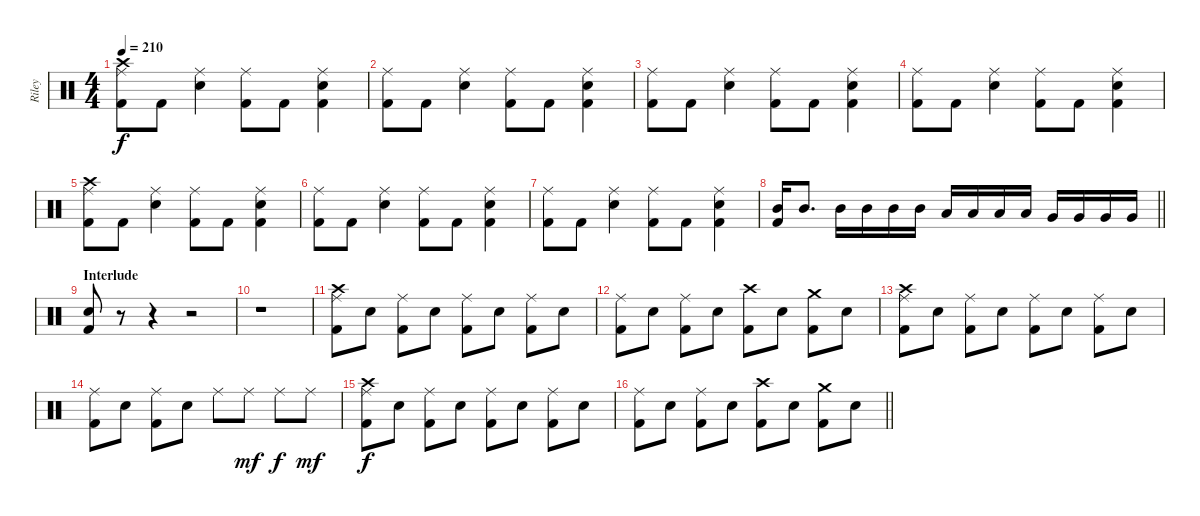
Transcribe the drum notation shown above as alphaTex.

\track ("Riley" "Riley") {instrument percussion}
\staff {score}
\articulation defaults
\ts (4 4)
\tempo 210
\clef neutral
\ks c
("Crash high (hit)" "Ride (middle)" "Kick (hit) 2").8{dy f} "Kick (hit) 2".8 ("Ride (middle)" "Electric Snare (hit)").4 ("Ride (middle)" "Kick (hit) 2").8 "Kick (hit) 2".8 ("Ride (middle)" "Electric Snare (hit)" "Kick (hit) 2").4 |
("Ride (middle)" "Kick (hit) 2").8 "Kick (hit) 2".8 ("Ride (middle)" "Electric Snare (hit)").4 ("Ride (middle)" "Kick (hit) 2").8 "Kick (hit) 2".8 ("Ride (middle)" "Electric Snare (hit)" "Kick (hit) 2").4 |
("Ride (middle)" "Kick (hit) 2").8 "Kick (hit) 2".8 ("Ride (middle)" "Electric Snare (hit)").4 ("Ride (middle)" "Kick (hit) 2").8 "Kick (hit) 2".8 ("Ride (middle)" "Electric Snare (hit)" "Kick (hit) 2").4 |
("Ride (middle)" "Kick (hit) 2").8 "Kick (hit) 2".8 ("Ride (middle)" "Electric Snare (hit)").4 ("Ride (middle)" "Kick (hit) 2").8 "Kick (hit) 2".8 ("Ride (middle)" "Electric Snare (hit)" "Kick (hit) 2").4 |
("Crash high (hit)" "Ride (middle)" "Kick (hit) 2").8 "Kick (hit) 2".8 ("Ride (middle)" "Electric Snare (hit)").4 ("Ride (middle)" "Kick (hit) 2").8 "Kick (hit) 2".8 ("Ride (middle)" "Electric Snare (hit)" "Kick (hit) 2").4 |
("Ride (middle)" "Kick (hit) 2").8 "Kick (hit) 2".8 ("Ride (middle)" "Electric Snare (hit)").4 ("Ride (middle)" "Kick (hit) 2").8 "Kick (hit) 2".8 ("Ride (middle)" "Electric Snare (hit)" "Kick (hit) 2").4 |
("Ride (middle)" "Kick (hit) 2").8 "Kick (hit) 2".8 ("Ride (middle)" "Electric Snare (hit)").4 ("Ride (middle)" "Kick (hit) 2").8 "Kick (hit) 2".8 ("Ride (middle)" "Electric Snare (hit)" "Kick (hit) 2").4 |
\barLineRight lightlight
("Mid Tom (hit)" "Kick (hit) 2").16 "Mid Tom (hit)".8{d} "Mid Tom (hit)".16 "Mid Tom (hit)".16 "Mid Tom (hit)".16 "Mid Tom (hit)".16 "Low Tom (hit)".16 "Low Tom (hit)".16 "Low Tom (hit)".16 "Low Tom (hit)".16 "Very Low Tom (hit)".16 "Very Low Tom (hit)".16 "Very Low Tom (hit)".16 "Very Low Tom (hit)".16 |
\section ("" "Interlude")
("Electric Snare (hit)" "Kick (hit) 2").8 r.8 r.4 r.2 |
r.1 |
("Crash high (hit)" "Ride (middle)" "Kick (hit) 2").8 "Electric Snare (hit)".8 ("Ride (middle)" "Kick (hit) 2").8 "Electric Snare (hit)".8 ("Ride (middle)" "Kick (hit) 2").8 "Electric Snare (hit)".8 ("Ride (middle)" "Kick (hit) 2").8 "Electric Snare (hit)".8 |
("Ride (middle)" "Kick (hit) 2").8 "Electric Snare (hit)".8 ("Ride (middle)" "Kick (hit) 2").8 "Electric Snare (hit)".8 ("Crash high (hit)" "Kick (hit) 2").8 "Electric Snare (hit)".8 ("Crash medium (hit)" "Kick (hit) 2").8 "Electric Snare (hit)".8 |
("Crash high (hit)" "Ride (middle)" "Kick (hit) 2").8 "Electric Snare (hit)".8 ("Ride (middle)" "Kick (hit) 2").8 "Electric Snare (hit)".8 ("Ride (middle)" "Kick (hit) 2").8 "Electric Snare (hit)".8 ("Ride (middle)" "Kick (hit) 2").8 "Electric Snare (hit)".8 |
("Ride (middle)" "Kick (hit) 2").8 "Electric Snare (hit)".8 ("Ride (middle)" "Kick (hit) 2").8 "Electric Snare (hit)".8 "Ride (middle)".8 "Ride (middle)".8{dy mf} "Ride (middle)".8{dy f} "Ride (middle)".8{dy mf} |
("Crash high (hit)" "Ride (middle)" "Kick (hit) 2").8{dy f} "Electric Snare (hit)".8 ("Ride (middle)" "Kick (hit) 2").8 "Electric Snare (hit)".8 ("Ride (middle)" "Kick (hit) 2").8 "Electric Snare (hit)".8 ("Ride (middle)" "Kick (hit) 2").8 "Electric Snare (hit)".8 |
\barLineRight lightlight
("Ride (middle)" "Kick (hit) 2").8 "Electric Snare (hit)".8 ("Ride (middle)" "Kick (hit) 2").8 "Electric Snare (hit)".8 ("Crash high (hit)" "Kick (hit) 2").8 "Electric Snare (hit)".8 ("Crash medium (hit)" "Kick (hit) 2").8 "Electric Snare (hit)".8
